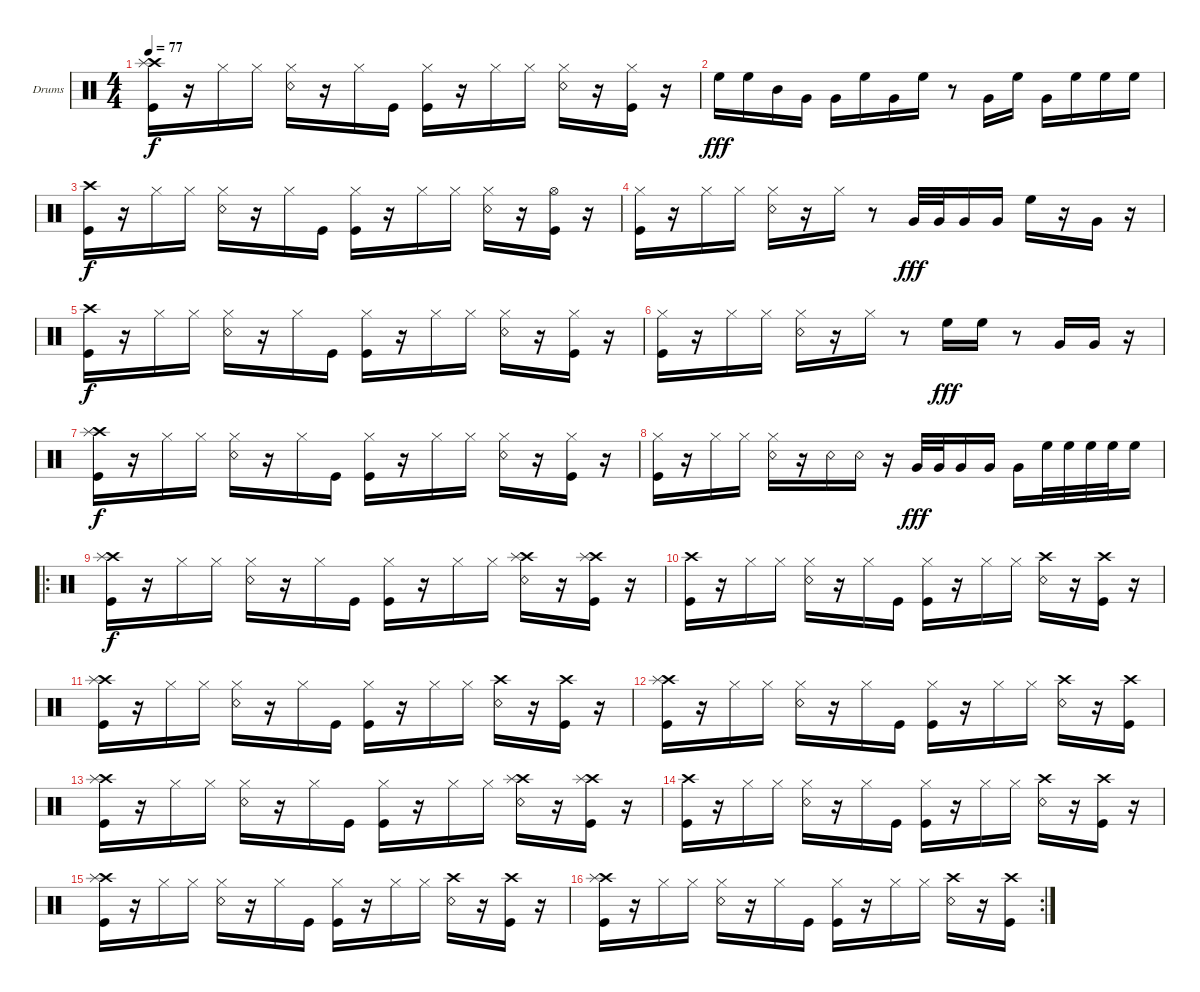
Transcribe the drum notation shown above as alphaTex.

\defaultSystemsLayout 4
\bracketExtendMode groupsimilarinstruments
\firstSystemTrackNameOrientation horizontal
\otherSystemsTrackNameOrientation horizontal
\track ("Drumkit" "Drums") {instrument percussion}
\staff {score}
\articulation defaults
\ts (4 4)
\tempo 77
\clef neutral
\scale
0.333333
\ks c
("Kick (hit)" "Crash high (hit)" "Splash (hit)").16{dy f} r.16 "Hi-Hat (closed)".16 "Hi-Hat (closed)".16 ("Snare (rim shot)" "Hi-Hat (closed)").16 r.16 "Hi-Hat (closed)".16 "Kick (hit)".16 ("Kick (hit)" "Hi-Hat (closed)").16 r.16 "Hi-Hat (closed)".16 "Hi-Hat (closed)".16 ("Snare (rim shot)" "Hi-Hat (closed)").16 r.16 ("Kick (hit)" "Hi-Hat (closed)").16 r.16 |
\scale
0.333333 "High Floor Tom (hit)".16{dy fff} "High Floor Tom (hit)".16 "Mid Tom (hit)".16 "Very Low Tom (hit)".16 "Very Low Tom (hit)".16 "High Floor Tom (hit)".16 "Very Low Tom (hit)".16 "High Floor Tom (hit)".16 r.8 "Very Low Tom (hit)".16 "High Floor Tom (hit)".16 "Very Low Tom (hit)".16 "High Floor Tom (hit)".16 "High Floor Tom (hit)".16 "High Floor Tom (hit)".16 |
\scale
0.333333 ("Kick (hit)" "Crash high (hit)").16{dy f} r.16 "Hi-Hat (closed)".16 "Hi-Hat (closed)".16 ("Snare (rim shot)" "Hi-Hat (closed)").16 r.16 "Hi-Hat (closed)".16 "Kick (hit)".16 ("Kick (hit)" "Hi-Hat (closed)").16 r.16 "Hi-Hat (closed)".16 "Hi-Hat (closed)".16 ("Snare (rim shot)" "Hi-Hat (closed)").16 r.16 ("Kick (hit)" "Hi-Hat (open)").16 r.16 |
\scale
0.333333 ("Kick (hit)" "Hi-Hat (closed)").16 r.16 "Hi-Hat (closed)".16 "Hi-Hat (closed)".16 ("Snare (rim shot)" "Hi-Hat (closed)").16 r.16 "Hi-Hat (closed)".16 r.8 "Very Low Tom (hit)".32{dy fff} "Very Low Tom (hit)".32 "Very Low Tom (hit)".16 "Very Low Tom (hit)".16 "High Floor Tom (hit)".16 r.16 "Very Low Tom (hit)".16 r.16 |
\scale
0.333333 ("Kick (hit)" "Crash high (hit)").16{dy f} r.16 "Hi-Hat (closed)".16 "Hi-Hat (closed)".16 ("Snare (rim shot)" "Hi-Hat (closed)").16 r.16 "Hi-Hat (closed)".16 "Kick (hit)".16 ("Kick (hit)" "Hi-Hat (closed)").16 r.16 "Hi-Hat (closed)".16 "Hi-Hat (closed)".16 ("Snare (rim shot)" "Hi-Hat (closed)").16 r.16 ("Kick (hit)" "Hi-Hat (closed)").16 r.16 |
\scale
0.333333 ("Kick (hit)" "Hi-Hat (closed)").16 r.16 "Hi-Hat (closed)".16 "Hi-Hat (closed)".16 ("Snare (rim shot)" "Hi-Hat (closed)").16 r.16 "Hi-Hat (closed)".16 r.8 "High Floor Tom (hit)".16{dy fff} "High Floor Tom (hit)".16 r.8 "Very Low Tom (hit)".16 "Very Low Tom (hit)".16 r.16 |
\scale
0.311475 ("Kick (hit)" "Crash high (hit)" "Splash (hit)").16{dy f} r.16 "Hi-Hat (closed)".16 "Hi-Hat (closed)".16 ("Snare (rim shot)" "Hi-Hat (closed)").16 r.16 "Hi-Hat (closed)".16 "Kick (hit)".16 ("Kick (hit)" "Hi-Hat (closed)").16 r.16 "Hi-Hat (closed)".16 "Hi-Hat (closed)".16 ("Snare (rim shot)" "Hi-Hat (closed)").16 r.16 ("Kick (hit)" "Hi-Hat (closed)").16 r.16 |
\scale
0.311475 ("Kick (hit)" "Hi-Hat (closed)").16 r.16 "Hi-Hat (closed)".16 "Hi-Hat (closed)".16 ("Snare (rim shot)" "Hi-Hat (closed)").16 r.16 "Snare (rim shot)".16 "Snare (rim shot)".16 r.16 "Very Low Tom (hit)".32{dy fff} "Very Low Tom (hit)".32 "Very Low Tom (hit)".16 "Very Low Tom (hit)".16 "Very Low Tom (hit)".16 "High Floor Tom (hit)".32 "High Floor Tom (hit)".32 "High Floor Tom (hit)".32 "High Floor Tom (hit)".32 "High Floor Tom (hit)".16 |
\ro
\scale
0.377049 ("Kick (hit)" "Crash high (hit)" "Splash (hit)").16{dy f} r.16 "Hi-Hat (closed)".16 "Hi-Hat (closed)".16 ("Snare (rim shot)" "Hi-Hat (closed)").16 r.16 "Hi-Hat (closed)".16 "Kick (hit)".16 ("Kick (hit)" "Hi-Hat (closed)").16 r.16 "Hi-Hat (closed)".16 "Hi-Hat (closed)".16 ("Snare (rim shot)" "Crash high (hit)" "Splash (hit)").16 r.16 ("Kick (hit)" "Crash high (hit)" "Splash (hit)").16 r.16 |
\scale
0.333333 ("Kick (hit)" "Crash high (hit)").16 r.16 "Hi-Hat (closed)".16 "Hi-Hat (closed)".16 ("Snare (rim shot)" "Hi-Hat (closed)").16 r.16 "Hi-Hat (closed)".16 "Kick (hit)".16 ("Kick (hit)" "Hi-Hat (closed)").16 r.16 "Hi-Hat (closed)".16 "Hi-Hat (closed)".16 ("Snare (rim shot)" "Crash high (hit)").16 r.16 ("Kick (hit)" "Crash high (hit)").16 r.16 |
\scale
0.333333 ("Kick (hit)" "Crash high (hit)" "Splash (hit)").16 r.16 "Hi-Hat (closed)".16 "Hi-Hat (closed)".16 ("Snare (rim shot)" "Hi-Hat (closed)").16 r.16 "Hi-Hat (closed)".16 "Kick (hit)".16 ("Kick (hit)" "Hi-Hat (closed)").16 r.16 "Hi-Hat (closed)".16 "Hi-Hat (closed)".16 ("Snare (rim shot)" "Crash high (hit)").16 r.16 ("Kick (hit)" "Crash high (hit)").16 r.16 |
\scale
0.333333 ("Kick (hit)" "Crash high (hit)" "Splash (hit)").16 r.16 "Hi-Hat (closed)".16 "Hi-Hat (closed)".16 ("Snare (rim shot)" "Hi-Hat (closed)").16 r.16 "Hi-Hat (closed)".16 "Kick (hit)".16 ("Kick (hit)" "Hi-Hat (closed)").16 r.16 "Hi-Hat (closed)".16 "Hi-Hat (closed)".16 ("Snare (rim shot)" "Crash high (hit)").16 r.16 ("Kick (hit)" "Crash high (hit)").16 |
\scale
0.333333 ("Kick (hit)" "Crash high (hit)" "Splash (hit)").16 r.16 "Hi-Hat (closed)".16 "Hi-Hat (closed)".16 ("Snare (rim shot)" "Hi-Hat (closed)").16 r.16 "Hi-Hat (closed)".16 "Kick (hit)".16 ("Kick (hit)" "Hi-Hat (closed)").16 r.16 "Hi-Hat (closed)".16 "Hi-Hat (closed)".16 ("Snare (rim shot)" "Crash high (hit)" "Splash (hit)").16 r.16 ("Kick (hit)" "Crash high (hit)" "Splash (hit)").16 r.16 |
\scale
0.333333 ("Kick (hit)" "Crash high (hit)").16 r.16 "Hi-Hat (closed)".16 "Hi-Hat (closed)".16 ("Snare (rim shot)" "Hi-Hat (closed)").16 r.16 "Hi-Hat (closed)".16 "Kick (hit)".16 ("Kick (hit)" "Hi-Hat (closed)").16 r.16 "Hi-Hat (closed)".16 "Hi-Hat (closed)".16 ("Snare (rim shot)" "Crash high (hit)").16 r.16 ("Kick (hit)" "Crash high (hit)").16 r.16 |
\scale
0.333333 ("Kick (hit)" "Crash high (hit)" "Splash (hit)").16 r.16 "Hi-Hat (closed)".16 "Hi-Hat (closed)".16 ("Snare (rim shot)" "Hi-Hat (closed)").16 r.16 "Hi-Hat (closed)".16 "Kick (hit)".16 ("Kick (hit)" "Hi-Hat (closed)").16 r.16 "Hi-Hat (closed)".16 "Hi-Hat (closed)".16 ("Snare (rim shot)" "Crash high (hit)").16 r.16 ("Kick (hit)" "Crash high (hit)").16 r.16 |
\rc 2
("Kick (hit)" "Crash high (hit)" "Splash (hit)").16 r.16 "Hi-Hat (closed)".16 "Hi-Hat (closed)".16 ("Snare (rim shot)" "Hi-Hat (closed)").16 r.16 "Hi-Hat (closed)".16 "Kick (hit)".16 ("Kick (hit)" "Hi-Hat (closed)").16 r.16 "Hi-Hat (closed)".16 "Hi-Hat (closed)".16 ("Snare (rim shot)" "Crash high (hit)").16 r.16 ("Kick (hit)" "Crash high (hit)").16
